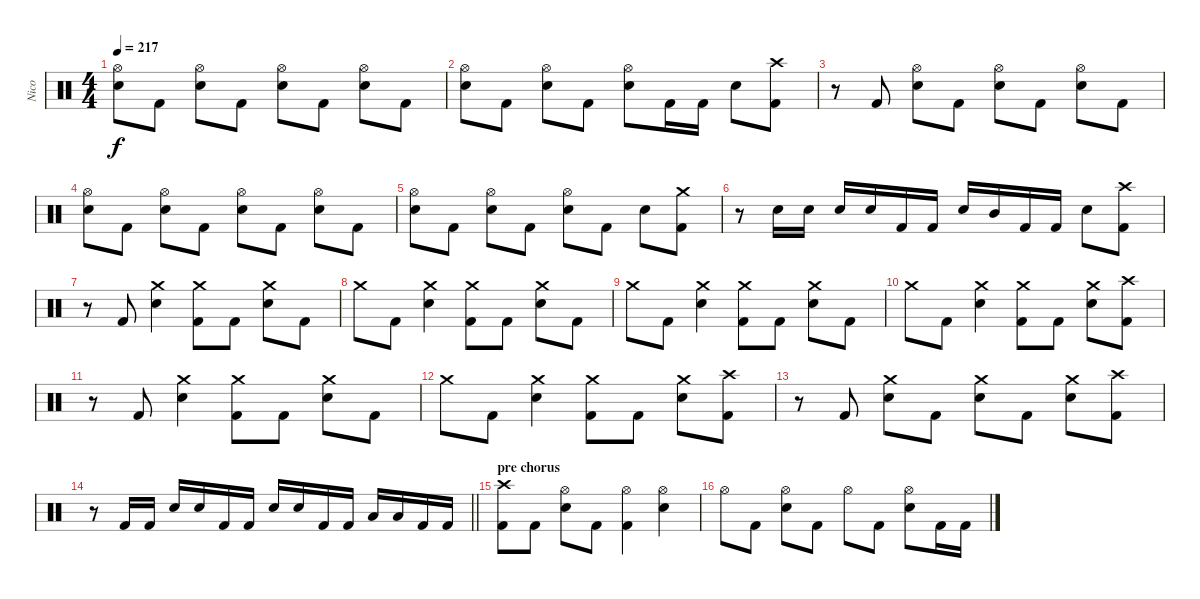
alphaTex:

\track ("Nico" "Nico") {instrument percussion}
\staff {score}
\articulation defaults
\ts (4 4)
\tempo 217
\clef neutral
\ks c
("Hi-Hat (open)" "Electric Snare (hit)").8{dy f} "Kick (hit) 2".8 ("Hi-Hat (open)" "Electric Snare (hit)").8 "Kick (hit) 2".8 ("Hi-Hat (open)" "Electric Snare (hit)").8 "Kick (hit) 2".8 ("Hi-Hat (open)" "Electric Snare (hit)").8 "Kick (hit) 2".8 |
("Hi-Hat (open)" "Electric Snare (hit)").8 "Kick (hit) 2".8 ("Hi-Hat (open)" "Electric Snare (hit)").8 "Kick (hit) 2".8 ("Hi-Hat (open)" "Electric Snare (hit)").8 "Kick (hit) 2".16 "Kick (hit) 2".16 "Electric Snare (hit)".8 ("Crash high (hit)" "Kick (hit) 2").8 |
r.8 "Kick (hit) 2".8 ("Hi-Hat (open)" "Electric Snare (hit)").8 "Kick (hit) 2".8 ("Hi-Hat (open)" "Electric Snare (hit)").8 "Kick (hit) 2".8 ("Hi-Hat (open)" "Electric Snare (hit)").8 "Kick (hit) 2".8 |
("Hi-Hat (open)" "Electric Snare (hit)").8 "Kick (hit) 2".8 ("Hi-Hat (open)" "Electric Snare (hit)").8 "Kick (hit) 2".8 ("Hi-Hat (open)" "Electric Snare (hit)").8 "Kick (hit) 2".8 ("Hi-Hat (open)" "Electric Snare (hit)").8 "Kick (hit) 2".8 |
("Hi-Hat (open)" "Electric Snare (hit)").8 "Kick (hit) 2".8 ("Hi-Hat (open)" "Electric Snare (hit)").8 "Kick (hit) 2".8 ("Hi-Hat (open)" "Electric Snare (hit)").8 "Kick (hit) 2".8 "Electric Snare (hit)".8 ("Crash medium (hit)" "Kick (hit) 2").8 |
r.8 "Electric Snare (hit)".16 "Electric Snare (hit)".16 "Electric Snare (hit)".16 "Electric Snare (hit)".16 "Kick (hit) 2".16 "Kick (hit) 2".16 "Electric Snare (hit)".16 "Mid Tom (hit)".16 "Kick (hit) 2".16 "Kick (hit) 2".16 "Electric Snare (hit)".8 ("Crash high (hit)" "Kick (hit) 2").8 |
r.8 "Kick (hit) 2".8 ("Crash medium (hit)" "Electric Snare (hit)").4 ("Crash medium (hit)" "Kick (hit) 2").8 "Kick (hit) 2".8 ("Crash medium (hit)" "Electric Snare (hit)").8 "Kick (hit) 2".8 |
"Crash medium (hit)".8 "Kick (hit) 2".8 ("Crash medium (hit)" "Electric Snare (hit)").4 ("Crash medium (hit)" "Kick (hit) 2").8 "Kick (hit) 2".8 ("Crash medium (hit)" "Electric Snare (hit)").8 "Kick (hit) 2".8 |
"Crash medium (hit)".8 "Kick (hit) 2".8 ("Crash medium (hit)" "Electric Snare (hit)").4 ("Crash medium (hit)" "Kick (hit) 2").8 "Kick (hit) 2".8 ("Crash medium (hit)" "Electric Snare (hit)").8 "Kick (hit) 2".8 |
"Crash medium (hit)".8 "Kick (hit) 2".8 ("Crash medium (hit)" "Electric Snare (hit)").4 ("Crash medium (hit)" "Kick (hit) 2").8 "Kick (hit) 2".8 ("Crash medium (hit)" "Electric Snare (hit)").8 ("Crash high (hit)" "Kick (hit) 2").8 |
r.8 "Kick (hit) 2".8 ("Crash medium (hit)" "Electric Snare (hit)").4 ("Crash medium (hit)" "Kick (hit) 2").8 "Kick (hit) 2".8 ("Crash medium (hit)" "Electric Snare (hit)").8 "Kick (hit) 2".8 |
"Crash medium (hit)".8 "Kick (hit) 2".8 ("Crash medium (hit)" "Electric Snare (hit)").4 ("Crash medium (hit)" "Kick (hit) 2").8 "Kick (hit) 2".8 ("Crash medium (hit)" "Electric Snare (hit)").8 ("Crash high (hit)" "Kick (hit) 2").8 |
r.8 "Kick (hit) 2".8 ("Crash medium (hit)" "Electric Snare (hit)").8 "Kick (hit) 2".8 ("Crash medium (hit)" "Electric Snare (hit)").8 "Kick (hit) 2".8 ("Crash medium (hit)" "Electric Snare (hit)").8 ("Crash high (hit)" "Kick (hit) 2").8 |
\barLineRight lightlight
r.8 "Kick (hit) 2".16 "Kick (hit) 2".16 "Electric Snare (hit)".16 "Electric Snare (hit)".16 "Kick (hit) 2".16 "Kick (hit) 2".16 "Electric Snare (hit)".16 "Electric Snare (hit)".16 "Kick (hit) 2".16 "Kick (hit) 2".16 "Low Tom (hit)".16 "Low Tom (hit)".16 "Kick (hit) 2".16 "Kick (hit) 2".16 |
\section ("" "pre chorus")
("Crash high (hit)" "Kick (hit) 2").8{balance 8} "Kick (hit) 2".8 ("Hi-Hat (open)" "Electric Snare (hit)").8 "Kick (hit) 2".8 ("Hi-Hat (open)" "Kick (hit) 2").4 ("Hi-Hat (open)" "Electric Snare (hit)").4 |
"Hi-Hat (open)".8 "Kick (hit) 2".8 ("Hi-Hat (open)" "Electric Snare (hit)").8 "Kick (hit) 2".8 "Hi-Hat (open)".8 "Kick (hit) 2".8 ("Hi-Hat (open)" "Electric Snare (hit)").8 "Kick (hit) 2".16 "Kick (hit) 2".16
